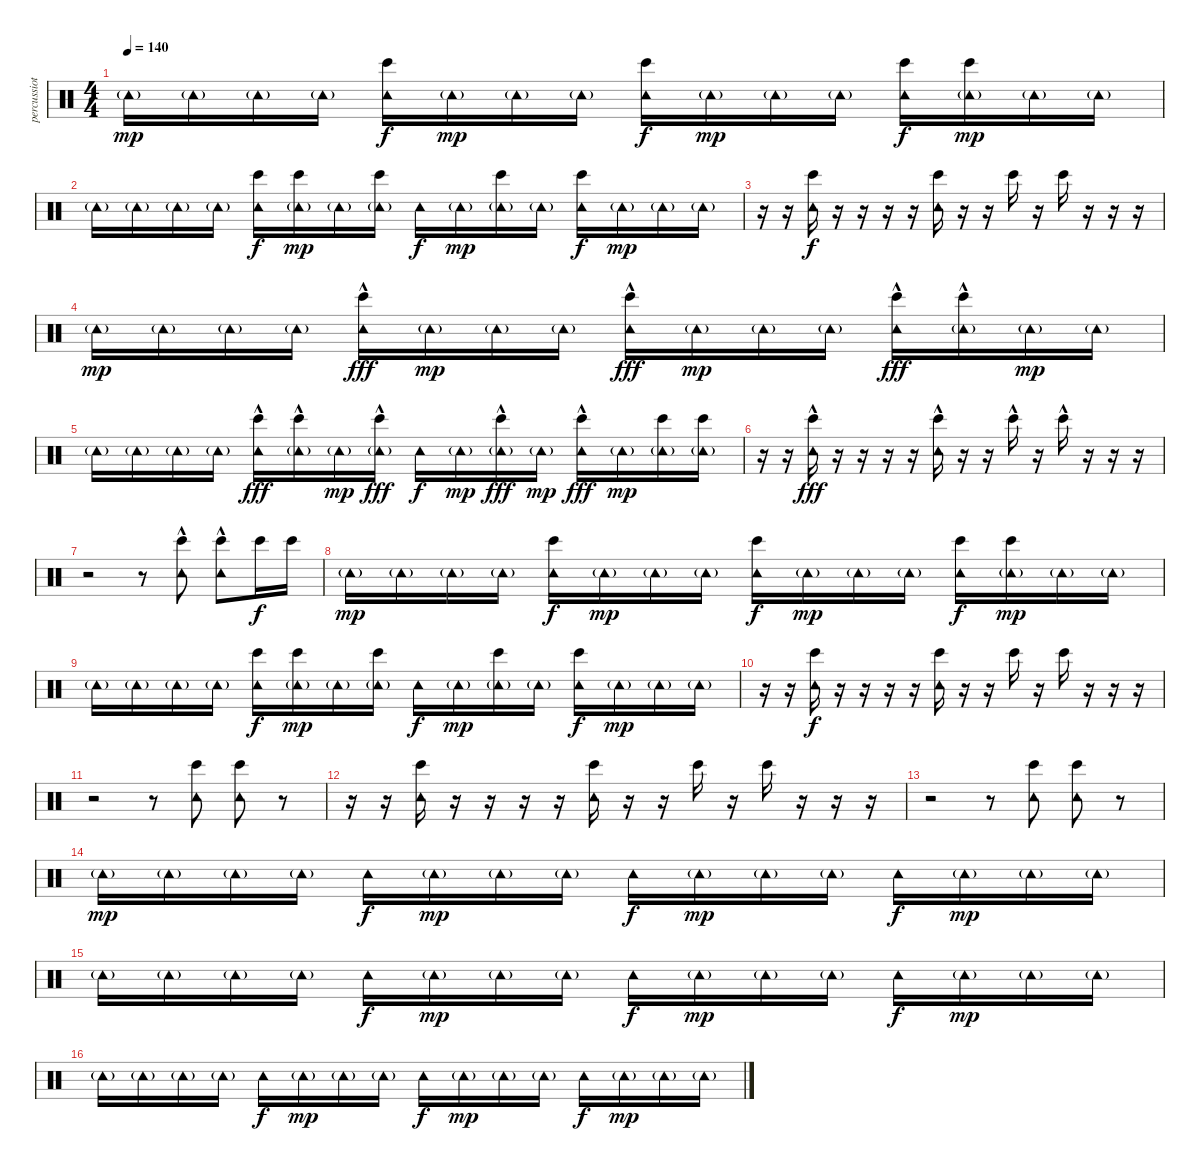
\track ("percussiot" "percussiot") {instrument percussion}
\staff {score}
\articulation defaults
\ts (4 4)
\tempo 140
\clef neutral
\ks c "Tambourine (hit)"{g}.16{dy mp} "Tambourine (hit)"{g}.16 "Tambourine (hit)"{g}.16 "Tambourine (hit)"{g}.16
("Tambourine (hit)" "Bongo High (hit)").16{dy f} "Tambourine (hit)"{g}.16{dy mp} "Tambourine (hit)"{g}.16 "Tambourine (hit)"{g}.16 ("Tambourine (hit)" "Bongo High (hit)").16{dy f} "Tambourine (hit)"{g}.16{dy mp} "Tambourine (hit)"{g}.16 "Tambourine (hit)"{g}.16 ("Tambourine (hit)" "Bongo High (hit)").16{dy f} ("Tambourine (hit)"{g} "Bongo High (hit)").16{dy mp} "Tambourine (hit)"{g}.16 "Tambourine (hit)"{g}.16 |
"Tambourine (hit)"{g}.16 "Tambourine (hit)"{g}.16 "Tambourine (hit)"{g}.16 "Tambourine (hit)"{g}.16 ("Tambourine (hit)" "Bongo High (hit)").16{dy f} ("Tambourine (hit)"{g} "Bongo High (hit)").16{dy mp} "Tambourine (hit)"{g}.16 ("Tambourine (hit)"{g} "Bongo High (hit)").16 "Tambourine (hit)".16{dy f} "Tambourine (hit)"{g}.16{dy mp} ("Tambourine (hit)"{g} "Bongo High (hit)").16 "Tambourine (hit)"{g}.16 ("Tambourine (hit)" "Bongo High (hit)").16{dy f} "Tambourine (hit)"{g}.16{dy mp} "Tambourine (hit)"{g}.16 "Tambourine (hit)"{g}.16 |
r.16 r.16 ("Tambourine (hit)" "Bongo High (hit)").16{dy f} r.16 r.16 r.16 r.16 ("Tambourine (hit)" "Bongo High (hit)").16 r.16 r.16 "Bongo High (hit)".16 r.16 "Bongo High (hit)".16 r.16 r.16 r.16 |
"Tambourine (hit)"{g}.16{dy mp} "Tambourine (hit)"{g}.16 "Tambourine (hit)"{g}.16 "Tambourine (hit)"{g}.16 ("Tambourine (hit)" "Bongo High (hit)"{hac}).16{dy fff} "Tambourine (hit)"{g}.16{dy mp} "Tambourine (hit)"{g}.16 "Tambourine (hit)"{g}.16 ("Tambourine (hit)" "Bongo High (hit)"{hac}).16{dy fff} "Tambourine (hit)"{g}.16{dy mp} "Tambourine (hit)"{g}.16 "Tambourine (hit)"{g}.16 ("Tambourine (hit)" "Bongo High (hit)"{hac}).16{dy fff} ("Tambourine (hit)"{g} "Bongo High (hit)"{hac}).16 "Tambourine (hit)"{g}.16{dy mp} "Tambourine (hit)"{g}.16 |
"Tambourine (hit)"{g}.16 "Tambourine (hit)"{g}.16 "Tambourine (hit)"{g}.16 "Tambourine (hit)"{g}.16 ("Tambourine (hit)" "Bongo High (hit)"{hac}).16{dy fff} ("Tambourine (hit)"{g} "Bongo High (hit)"{hac}).16 "Tambourine (hit)"{g}.16{dy mp} ("Tambourine (hit)"{g} "Bongo High (hit)"{hac}).16{dy fff} "Tambourine (hit)".16{dy f} "Tambourine (hit)"{g}.16{dy mp} ("Tambourine (hit)"{g} "Bongo High (hit)"{hac}).16{dy fff} "Tambourine (hit)"{g}.16{dy mp} ("Tambourine (hit)" "Bongo High (hit)"{hac}).16{dy fff} "Tambourine (hit)"{g}.16{dy mp} ("Tambourine (hit)"{g} "Bongo High (hit)").16 ("Tambourine (hit)"{g} "Bongo High (hit)").16 |
r.16 r.16 ("Tambourine (hit)" "Bongo High (hit)"{hac}).16{dy fff} r.16 r.16 r.16 r.16 ("Tambourine (hit)" "Bongo High (hit)"{hac}).16 r.16 r.16 "Bongo High (hit)"{hac}.16 r.16 "Bongo High (hit)"{hac}.16 r.16 r.16 r.16 |
r.2 r.8 ("Tambourine (hit)" "Bongo High (hit)"{hac}).8 ("Tambourine (hit)" "Bongo High (hit)"{hac}).8 "Bongo High (hit)".16{dy f} "Bongo High (hit)".16 |
"Tambourine (hit)"{g}.16{dy mp} "Tambourine (hit)"{g}.16 "Tambourine (hit)"{g}.16 "Tambourine (hit)"{g}.16 ("Tambourine (hit)" "Bongo High (hit)").16{dy f} "Tambourine (hit)"{g}.16{dy mp} "Tambourine (hit)"{g}.16 "Tambourine (hit)"{g}.16 ("Tambourine (hit)" "Bongo High (hit)").16{dy f} "Tambourine (hit)"{g}.16{dy mp} "Tambourine (hit)"{g}.16 "Tambourine (hit)"{g}.16 ("Tambourine (hit)" "Bongo High (hit)").16{dy f} ("Tambourine (hit)"{g} "Bongo High (hit)").16{dy mp} "Tambourine (hit)"{g}.16 "Tambourine (hit)"{g}.16 |
"Tambourine (hit)"{g}.16 "Tambourine (hit)"{g}.16 "Tambourine (hit)"{g}.16 "Tambourine (hit)"{g}.16 ("Tambourine (hit)" "Bongo High (hit)").16{dy f} ("Tambourine (hit)"{g} "Bongo High (hit)").16{dy mp} "Tambourine (hit)"{g}.16 ("Tambourine (hit)"{g} "Bongo High (hit)").16 "Tambourine (hit)".16{dy f} "Tambourine (hit)"{g}.16{dy mp} ("Tambourine (hit)"{g} "Bongo High (hit)").16 "Tambourine (hit)"{g}.16 ("Tambourine (hit)" "Bongo High (hit)").16{dy f} "Tambourine (hit)"{g}.16{dy mp} "Tambourine (hit)"{g}.16 "Tambourine (hit)"{g}.16 |
r.16 r.16 ("Tambourine (hit)" "Bongo High (hit)").16{dy f} r.16 r.16 r.16 r.16 ("Tambourine (hit)" "Bongo High (hit)").16 r.16 r.16 "Bongo High (hit)".16 r.16 "Bongo High (hit)".16 r.16 r.16 r.16 |
r.2 r.8 ("Tambourine (hit)" "Bongo High (hit)").8 ("Tambourine (hit)" "Bongo High (hit)").8 r.8 |
r.16 r.16 ("Tambourine (hit)" "Bongo High (hit)").16 r.16 r.16 r.16 r.16 ("Tambourine (hit)" "Bongo High (hit)").16 r.16 r.16 "Bongo High (hit)".16 r.16 "Bongo High (hit)".16 r.16 r.16 r.16 |
r.2 r.8 ("Tambourine (hit)" "Bongo High (hit)").8 ("Tambourine (hit)" "Bongo High (hit)").8 r.8 |
"Tambourine (hit)"{g}.16{dy mp} "Tambourine (hit)"{g}.16 "Tambourine (hit)"{g}.16 "Tambourine (hit)"{g}.16 "Tambourine (hit)".16{dy f} "Tambourine (hit)"{g}.16{dy mp} "Tambourine (hit)"{g}.16 "Tambourine (hit)"{g}.16 "Tambourine (hit)".16{dy f} "Tambourine (hit)"{g}.16{dy mp} "Tambourine (hit)"{g}.16 "Tambourine (hit)"{g}.16 "Tambourine (hit)".16{dy f} "Tambourine (hit)"{g}.16{dy mp} "Tambourine (hit)"{g}.16 "Tambourine (hit)"{g}.16 |
"Tambourine (hit)"{g}.16 "Tambourine (hit)"{g}.16 "Tambourine (hit)"{g}.16 "Tambourine (hit)"{g}.16 "Tambourine (hit)".16{dy f} "Tambourine (hit)"{g}.16{dy mp} "Tambourine (hit)"{g}.16 "Tambourine (hit)"{g}.16 "Tambourine (hit)".16{dy f} "Tambourine (hit)"{g}.16{dy mp} "Tambourine (hit)"{g}.16 "Tambourine (hit)"{g}.16 "Tambourine (hit)".16{dy f} "Tambourine (hit)"{g}.16{dy mp} "Tambourine (hit)"{g}.16 "Tambourine (hit)"{g}.16 |
"Tambourine (hit)"{g}.16 "Tambourine (hit)"{g}.16 "Tambourine (hit)"{g}.16 "Tambourine (hit)"{g}.16 "Tambourine (hit)".16{dy f} "Tambourine (hit)"{g}.16{dy mp} "Tambourine (hit)"{g}.16 "Tambourine (hit)"{g}.16 "Tambourine (hit)".16{dy f} "Tambourine (hit)"{g}.16{dy mp} "Tambourine (hit)"{g}.16 "Tambourine (hit)"{g}.16 "Tambourine (hit)".16{dy f} "Tambourine (hit)"{g}.16{dy mp} "Tambourine (hit)"{g}.16 "Tambourine (hit)"{g}.16
